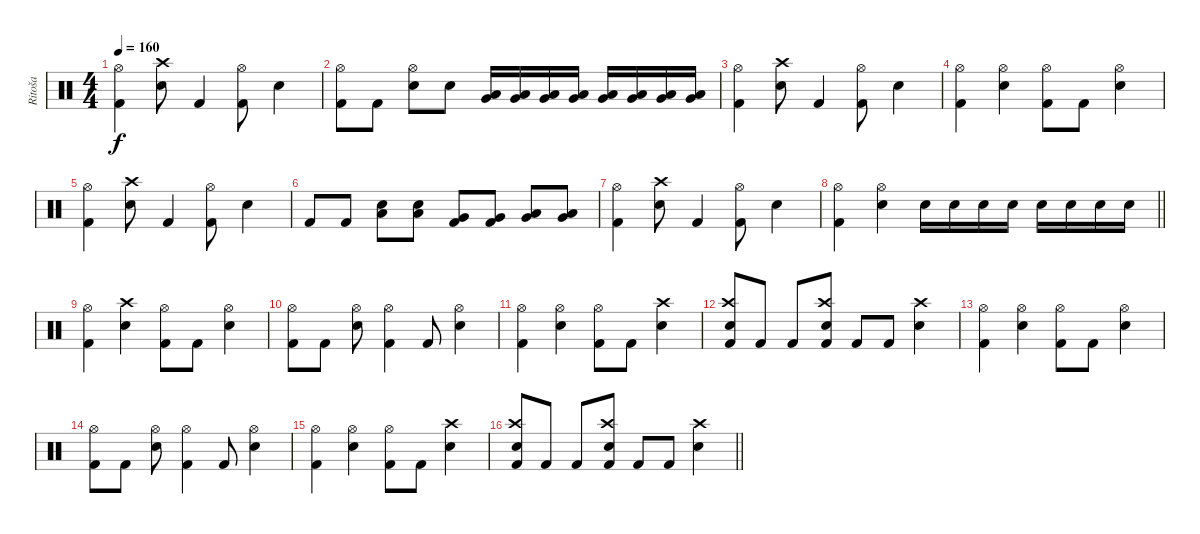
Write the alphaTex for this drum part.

\track ("Ritoša" "Ritoša") {instrument percussion}
\staff {score}
\articulation defaults
\ts (4 4)
\tempo 160
\clef neutral
\ks c
("Hi-Hat (open)" "Kick (hit) 2").4{dy f} ("Crash high (hit)" "Electric Snare (hit)").8 "Kick (hit) 2".4 ("Hi-Hat (open)" "Kick (hit) 2").8 "Electric Snare (hit)".4 |
("Hi-Hat (open)" "Kick (hit) 2").8 "Kick (hit) 2".8 ("Hi-Hat (open)" "Electric Snare (hit)").8 "Electric Snare (hit)".8 ("Very Low Tom (hit)" "Low Floor Tom (hit)").16 ("Very Low Tom (hit)" "Low Floor Tom (hit)").16 ("Very Low Tom (hit)" "Low Floor Tom (hit)").16 ("Very Low Tom (hit)" "Low Floor Tom (hit)").16 ("Very Low Tom (hit)" "Low Floor Tom (hit)").16 ("Very Low Tom (hit)" "Low Floor Tom (hit)").16 ("Very Low Tom (hit)" "Low Floor Tom (hit)").16 ("Very Low Tom (hit)" "Low Floor Tom (hit)").16 |
("Hi-Hat (open)" "Kick (hit) 2").4 ("Crash high (hit)" "Electric Snare (hit)").8 "Kick (hit) 2".4 ("Hi-Hat (open)" "Kick (hit) 2").8 "Electric Snare (hit)".4 |
("Hi-Hat (open)" "Kick (hit) 2").4 ("Hi-Hat (open)" "Electric Snare (hit)").4 ("Hi-Hat (open)" "Kick (hit) 2").8 "Kick (hit) 2".8 ("Hi-Hat (open)" "Electric Snare (hit)").4 |
("Hi-Hat (open)" "Kick (hit) 2").4 ("Crash high (hit)" "Electric Snare (hit)").8 "Kick (hit) 2".4 ("Hi-Hat (open)" "Kick (hit) 2").8 "Electric Snare (hit)".4 |
"Kick (hit) 2".8 "Kick (hit) 2".8 ("Electric Snare (hit)" "Low Floor Tom (hit)").8 ("Electric Snare (hit)" "Low Floor Tom (hit)").8 ("Very Low Tom (hit)" "Kick (hit) 2").8 ("Very Low Tom (hit)" "Kick (hit) 2").8 ("Very Low Tom (hit)" "Low Floor Tom (hit)").8 ("Very Low Tom (hit)" "Low Floor Tom (hit)").8 |
("Hi-Hat (open)" "Kick (hit) 2").4 ("Crash high (hit)" "Electric Snare (hit)").8 "Kick (hit) 2".4 ("Hi-Hat (open)" "Kick (hit) 2").8 "Electric Snare (hit)".4 |
\barLineRight lightlight
("Hi-Hat (open)" "Kick (hit) 2").4 ("Hi-Hat (open)" "Electric Snare (hit)").4 "Electric Snare (hit)".16 "Electric Snare (hit)".16 "Electric Snare (hit)".16 "Electric Snare (hit)".16 "Electric Snare (hit)".16 "Electric Snare (hit)".16 "Electric Snare (hit)".16 "Electric Snare (hit)".16 |
("Hi-Hat (open)" "Kick (hit) 2").4 ("Crash high (hit)" "Electric Snare (hit)").4 ("Hi-Hat (open)" "Kick (hit) 2").8 "Kick (hit) 2".8 ("Hi-Hat (open)" "Electric Snare (hit)").4 |
("Hi-Hat (open)" "Kick (hit) 2").8 "Kick (hit) 2".8 ("Hi-Hat (open)" "Electric Snare (hit)").8 ("Hi-Hat (open)" "Kick (hit) 2").4 "Kick (hit) 2".8 ("Hi-Hat (open)" "Electric Snare (hit)").4 |
("Hi-Hat (open)" "Kick (hit) 2").4 ("Hi-Hat (open)" "Electric Snare (hit)").4 ("Hi-Hat (open)" "Kick (hit) 2").8 "Kick (hit) 2".8 ("Crash high (hit)" "Electric Snare (hit)").4 |
("Crash high (hit)" "Electric Snare (hit)" "Kick (hit) 2").8 "Kick (hit) 2".8 "Kick (hit) 2".8 ("Crash high (hit)" "Electric Snare (hit)" "Kick (hit) 2").8 "Kick (hit) 2".8 "Kick (hit) 2".8 ("Crash high (hit)" "Electric Snare (hit)").4 |
("Hi-Hat (open)" "Kick (hit) 2").4 ("Hi-Hat (open)" "Electric Snare (hit)").4 ("Hi-Hat (open)" "Kick (hit) 2").8 "Kick (hit) 2".8 ("Hi-Hat (open)" "Electric Snare (hit)").4 |
("Hi-Hat (open)" "Kick (hit) 2").8 "Kick (hit) 2".8 ("Hi-Hat (open)" "Electric Snare (hit)").8 ("Hi-Hat (open)" "Kick (hit) 2").4 "Kick (hit) 2".8 ("Hi-Hat (open)" "Electric Snare (hit)").4 |
("Hi-Hat (open)" "Kick (hit) 2").4 ("Hi-Hat (open)" "Electric Snare (hit)").4 ("Hi-Hat (open)" "Kick (hit) 2").8 "Kick (hit) 2".8 ("Crash high (hit)" "Electric Snare (hit)").4 |
\barLineRight lightlight
("Crash high (hit)" "Electric Snare (hit)" "Kick (hit) 2").8 "Kick (hit) 2".8 "Kick (hit) 2".8 ("Crash high (hit)" "Electric Snare (hit)" "Kick (hit) 2").8 "Kick (hit) 2".8 "Kick (hit) 2".8 ("Crash high (hit)" "Electric Snare (hit)").4
